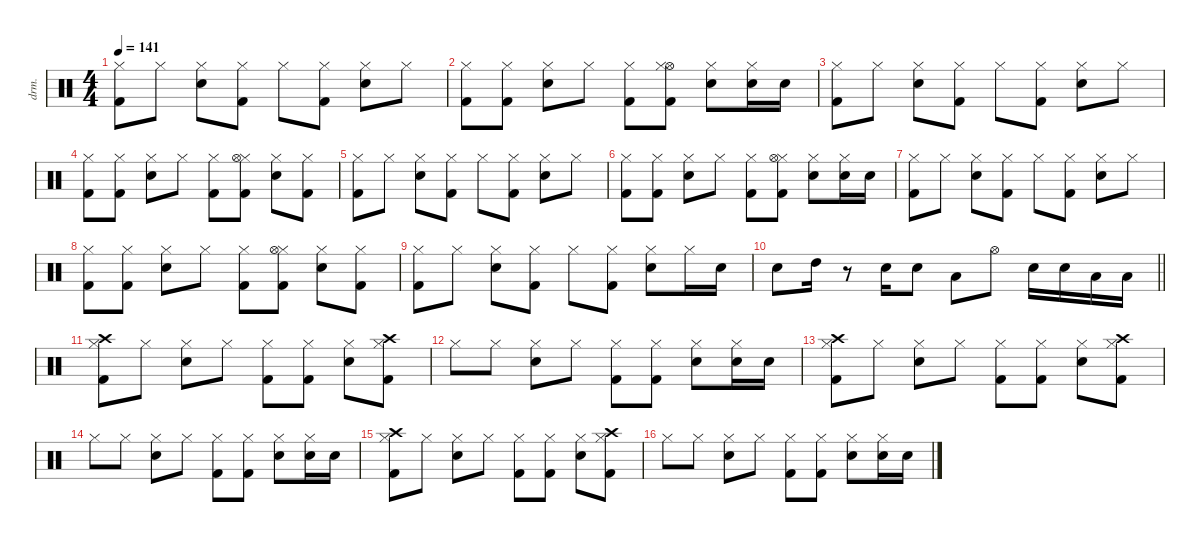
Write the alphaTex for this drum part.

\defaultSystemsLayout 4
\hideDynamics
\bracketExtendMode nobrackets
\otherSystemsTrackNameOrientation horizontal
\track ("Drum" "drm.") {instrument percussion}
\staff {score}
\articulation defaults
\ts (4 4)
\tempo 141
\clef neutral
\ks c
("Kick (hit) 2" "Hi-Hat (closed)").8{dy fff beam Down} "Hi-Hat (closed)".8{dy f beam Down} ("Snare (hit) 2" "Hi-Hat (closed)").8{dy fff beam Down} ("Hi-Hat (closed)" "Kick (hit) 2").8{beam Down} "Hi-Hat (closed)".8{beam Down} ("Kick (hit) 2" "Hi-Hat (closed)").8{dy f beam Down} ("Hi-Hat (closed)" "Snare (hit) 2").8{dy fff beam Down} "Hi-Hat (closed)".8{dy f beam Down} |
("Kick (hit) 2" "Hi-Hat (closed)").8{dy fff beam Down} ("Kick (hit) 2" "Hi-Hat (closed)").8{beam Down} ("Snare (hit) 2" "Hi-Hat (closed)").8{beam Down} "Hi-Hat (closed)".8{dy f beam Down} ("Kick (hit) 2" "Hi-Hat (closed)").8{dy fff beam Down} ("Hi-Hat (open)" "Hi-Hat (closed)" "Kick (hit) 2").8{dy f beam Down} ("Snare (hit) 2" "Hi-Hat (closed)").8{dy fff beam Down} ("Snare (hit) 2" "Hi-Hat (closed)").16{beam Down} "Snare (hit) 2".16{beam Down} |
("Hi-Hat (closed)" "Kick (hit) 2").8{beam Down} "Hi-Hat (closed)".8{dy f beam Down} ("Hi-Hat (closed)" "Snare (hit) 2").8{dy fff beam Down} ("Hi-Hat (closed)" "Kick (hit) 2").8{beam Down} "Hi-Hat (closed)".8{beam Down} ("Hi-Hat (closed)" "Kick (hit) 2").8{dy f beam Down} ("Hi-Hat (closed)" "Snare (hit) 2").8{dy fff beam Down} "Hi-Hat (closed)".8{dy f beam Down} |
("Hi-Hat (closed)" "Kick (hit) 2").8{dy fff beam Down} ("Hi-Hat (closed)" "Kick (hit) 2").8{beam Down} ("Hi-Hat (closed)" "Snare (hit) 2").8{beam Down} "Hi-Hat (closed)".8{dy f beam Down} ("Hi-Hat (closed)" "Kick (hit) 2").8{dy fff beam Down} ("Hi-Hat (closed)" "Kick (hit) 2" "Hi-Hat (open)").8{beam Down} ("Hi-Hat (closed)" "Snare (hit) 2").8{beam Down} ("Hi-Hat (closed)" "Kick (hit) 2").8{dy f beam Down} |
("Hi-Hat (closed)" "Kick (hit) 2").8{dy fff beam Down} "Hi-Hat (closed)".8{dy f beam Down} ("Hi-Hat (closed)" "Snare (hit) 2").8{dy fff beam Down} ("Hi-Hat (closed)" "Kick (hit) 2").8{beam Down} "Hi-Hat (closed)".8{beam Down} ("Hi-Hat (closed)" "Kick (hit) 2").8{beam Down} ("Hi-Hat (closed)" "Snare (hit) 2").8{beam Down} "Hi-Hat (closed)".8{dy f beam Down} |
("Kick (hit) 2" "Hi-Hat (closed)").8{dy fff beam Down} ("Kick (hit) 2" "Hi-Hat (closed)").8{beam Down} ("Snare (hit) 2" "Hi-Hat (closed)").8{beam Down} "Hi-Hat (closed)".8{dy f beam Down} ("Kick (hit) 2" "Hi-Hat (closed)").8{dy fff beam Down} ("Kick (hit) 2" "Hi-Hat (closed)" "Hi-Hat (open)").8{beam Down} ("Snare (hit) 2" "Hi-Hat (closed)").8{beam Down} ("Snare (hit) 2" "Hi-Hat (closed)").16{beam Down} "Snare (hit) 2".16{beam Down} |
("Hi-Hat (closed)" "Kick (hit) 2").8{beam Down} "Hi-Hat (closed)".8{dy f beam Down} ("Hi-Hat (closed)" "Snare (hit) 2").8{dy fff beam Down} ("Hi-Hat (closed)" "Kick (hit) 2").8{beam Down} "Hi-Hat (closed)".8{beam Down} ("Hi-Hat (closed)" "Kick (hit) 2").8{dy f beam Down} ("Hi-Hat (closed)" "Snare (hit) 2").8{dy fff beam Down} "Hi-Hat (closed)".8{dy f beam Down} |
("Kick (hit) 2" "Hi-Hat (closed)").8{dy fff beam Down} ("Kick (hit) 2" "Hi-Hat (closed)").8{beam Down} ("Snare (hit) 2" "Hi-Hat (closed)").8{beam Down} "Hi-Hat (closed)".8{dy f beam Down} ("Kick (hit) 2" "Hi-Hat (closed)").8{dy fff beam Down} ("Kick (hit) 2" "Hi-Hat (closed)" "Hi-Hat (open)").8{beam Down} ("Snare (hit) 2" "Hi-Hat (closed)").8{beam Down} ("Kick (hit) 2" "Hi-Hat (closed)").8{beam Down} |
("Hi-Hat (closed)" "Kick (hit) 2").8{beam Down} "Hi-Hat (closed)".8{dy f beam Down} ("Hi-Hat (closed)" "Snare (hit) 2").8{dy fff beam Down} ("Hi-Hat (closed)" "Kick (hit) 2").8{beam Down} "Hi-Hat (closed)".8{beam Down} ("Hi-Hat (closed)" "Kick (hit) 2").8{dy f beam Down} ("Hi-Hat (closed)" "Snare (hit) 2").8{dy fff beam Down} "Hi-Hat (closed)".16{dy f beam Down} "Snare (hit) 2".16{dy mf beam Down} |
\barLineRight lightlight "Snare (hit) 2".8{dy fff beam Down} "High Tom (hit)".16{beam Down}
r.8{beam Down} "Snare (hit) 2".16{dy mf beam Down} "Snare (hit) 2".8{dy fff beam Down} "Low Tom (hit)".8{beam Down} "Hi-Hat (open)".8{beam Down} "Snare (hit) 2".16{beam Down} "Snare (hit) 2".16{beam Down} "Low Tom (hit)".16{beam Down} "Low Floor Tom (hit)".16{beam Down} |
("Hi-Hat (closed)" "Kick (hit) 2" "Crash high (hit)").8{beam Down} "Hi-Hat (closed)".8{dy f beam Down} ("Hi-Hat (closed)" "Snare (hit) 2").8{dy fff beam Down} "Hi-Hat (closed)".8{dy f beam Down} ("Hi-Hat (closed)" "Kick (hit) 2").8{dy fff beam Down} ("Hi-Hat (closed)" "Kick (hit) 2").8{dy f beam Down} ("Hi-Hat (closed)" "Snare (hit) 2").8{dy fff beam Down} ("Hi-Hat (closed)" "Kick (hit) 2" "Crash high (hit)").8{beam Down} |
"Hi-Hat (closed)".8{beam Down} "Hi-Hat (closed)".8{dy f beam Down} ("Hi-Hat (closed)" "Snare (hit) 2").8{dy fff beam Down} "Hi-Hat (closed)".8{dy f beam Down} ("Hi-Hat (closed)" "Kick (hit) 2").8{dy fff beam Down} ("Hi-Hat (closed)" "Kick (hit) 2").8{dy f beam Down} ("Hi-Hat (closed)" "Snare (hit) 2").8{dy fff beam Down} ("Hi-Hat (closed)" "Snare (hit) 2").16{beam Down} "Snare (hit) 2".16{dy f beam Down} |
("Hi-Hat (closed)" "Kick (hit) 2" "Crash high (hit)").8{dy fff beam Down} "Hi-Hat (closed)".8{dy f beam Down} ("Hi-Hat (closed)" "Snare (hit) 2").8{dy fff beam Down} "Hi-Hat (closed)".8{dy f beam Down} ("Hi-Hat (closed)" "Kick (hit) 2").8{dy fff beam Down} ("Hi-Hat (closed)" "Kick (hit) 2").8{beam Down} ("Hi-Hat (closed)" "Snare (hit) 2").8{beam Down} ("Hi-Hat (closed)" "Kick (hit) 2" "Crash high (hit)").8{beam Down} |
"Hi-Hat (closed)".8{dy f beam Down} "Hi-Hat (closed)".8{beam Down} ("Snare (hit) 2" "Hi-Hat (closed)").8{dy fff beam Down} "Hi-Hat (closed)".8{dy f beam Down} ("Kick (hit) 2" "Hi-Hat (closed)").8{dy fff beam Down} ("Kick (hit) 2" "Hi-Hat (closed)").8{beam Down} ("Snare (hit) 2" "Hi-Hat (closed)").8{beam Down} ("Snare (hit) 2" "Hi-Hat (closed)").16{beam Down} "Snare (hit) 2".16{beam Down} |
("Kick (hit) 2" "Hi-Hat (closed)" "Crash high (hit)").8{beam Down} "Hi-Hat (closed)".8{dy f beam Down} ("Snare (hit) 2" "Hi-Hat (closed)").8{dy fff beam Down} "Hi-Hat (closed)".8{dy f beam Down} ("Kick (hit) 2" "Hi-Hat (closed)").8{dy fff beam Down} ("Hi-Hat (closed)" "Kick (hit) 2").8{dy f beam Down} ("Snare (hit) 2" "Hi-Hat (closed)").8{dy fff beam Down} ("Hi-Hat (closed)" "Kick (hit) 2" "Crash high (hit)").8{beam Down} |
"Hi-Hat (closed)".8{beam Down} "Hi-Hat (closed)".8{dy f beam Down} ("Hi-Hat (closed)" "Snare (hit) 2").8{dy fff beam Down} "Hi-Hat (closed)".8{dy f beam Down} ("Hi-Hat (closed)" "Kick (hit) 2").8{dy fff beam Down} ("Hi-Hat (closed)" "Kick (hit) 2").8{beam Down} ("Hi-Hat (closed)" "Snare (hit) 2").8{beam Down} ("Hi-Hat (closed)" "Snare (hit) 2").16{beam Down} "Snare (hit) 2".16{dy f beam Down}
